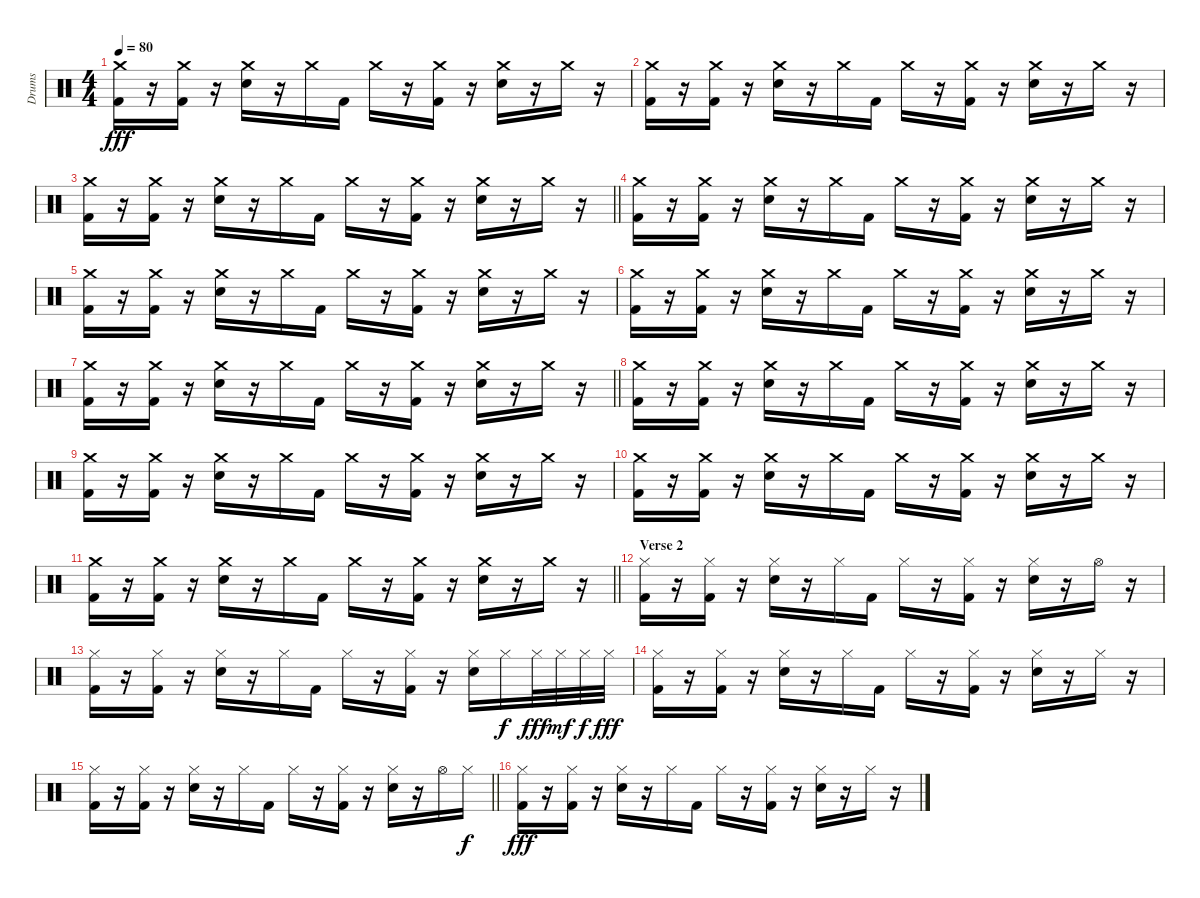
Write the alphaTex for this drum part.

\track ("Drums" "Drums") {instrument percussion}
\staff {score}
\articulation defaults
\ts (4 4)
\tempo 80
\clef neutral
\ks c
("Crash medium (hit)" "Kick (hit) 2").16{dy fff} r.16 ("Crash medium (hit)" "Kick (hit) 2").16 r.16 ("Crash medium (hit)" "Snare (hit) 2").16 r.16 "Crash medium (hit)".16 "Kick (hit) 2".16 "Crash medium (hit)".16 r.16 ("Crash medium (hit)" "Kick (hit) 2").16 r.16 ("Crash medium (hit)" "Snare (hit) 2").16 r.16 "Crash medium (hit)".16 r.16 |
("Crash medium (hit)" "Kick (hit) 2").16 r.16 ("Crash medium (hit)" "Kick (hit) 2").16 r.16 ("Crash medium (hit)" "Snare (hit) 2").16 r.16 "Crash medium (hit)".16 "Kick (hit) 2".16 "Crash medium (hit)".16 r.16 ("Crash medium (hit)" "Kick (hit) 2").16 r.16 ("Crash medium (hit)" "Snare (hit) 2").16 r.16 "Crash medium (hit)".16 r.16 |
\barLineRight lightlight
("Crash medium (hit)" "Kick (hit) 2").16 r.16 ("Crash medium (hit)" "Kick (hit) 2").16 r.16 ("Crash medium (hit)" "Snare (hit) 2").16 r.16 "Crash medium (hit)".16 "Kick (hit) 2".16 "Crash medium (hit)".16 r.16 ("Crash medium (hit)" "Kick (hit) 2").16 r.16 ("Crash medium (hit)" "Snare (hit) 2").16 r.16 "Crash medium (hit)".16 r.16 |
("Crash medium (hit)" "Kick (hit) 2").16 r.16 ("Crash medium (hit)" "Kick (hit) 2").16 r.16 ("Crash medium (hit)" "Snare (hit) 2").16 r.16 "Crash medium (hit)".16 "Kick (hit) 2".16 "Crash medium (hit)".16 r.16 ("Crash medium (hit)" "Kick (hit) 2").16 r.16 ("Crash medium (hit)" "Snare (hit) 2").16 r.16 "Crash medium (hit)".16 r.16 |
("Crash medium (hit)" "Kick (hit) 2").16 r.16 ("Crash medium (hit)" "Kick (hit) 2").16 r.16 ("Crash medium (hit)" "Snare (hit) 2").16 r.16 "Crash medium (hit)".16 "Kick (hit) 2".16 "Crash medium (hit)".16 r.16 ("Crash medium (hit)" "Kick (hit) 2").16 r.16 ("Crash medium (hit)" "Snare (hit) 2").16 r.16 "Crash medium (hit)".16 r.16 |
("Crash medium (hit)" "Kick (hit) 2").16 r.16 ("Crash medium (hit)" "Kick (hit) 2").16 r.16 ("Crash medium (hit)" "Snare (hit) 2").16 r.16 "Crash medium (hit)".16 "Kick (hit) 2".16 "Crash medium (hit)".16 r.16 ("Crash medium (hit)" "Kick (hit) 2").16 r.16 ("Crash medium (hit)" "Snare (hit) 2").16 r.16 "Crash medium (hit)".16 r.16 |
\barLineRight lightlight
("Crash medium (hit)" "Kick (hit) 2").16 r.16 ("Crash medium (hit)" "Kick (hit) 2").16 r.16 ("Crash medium (hit)" "Snare (hit) 2").16 r.16 "Crash medium (hit)".16 "Kick (hit) 2".16 "Crash medium (hit)".16 r.16 ("Crash medium (hit)" "Kick (hit) 2").16 r.16 ("Crash medium (hit)" "Snare (hit) 2").16 r.16 "Crash medium (hit)".16 r.16 |
("Crash medium (hit)" "Kick (hit) 2").16 r.16 ("Crash medium (hit)" "Kick (hit) 2").16 r.16 ("Crash medium (hit)" "Snare (hit) 2").16 r.16 "Crash medium (hit)".16 "Kick (hit) 2".16 "Crash medium (hit)".16 r.16 ("Crash medium (hit)" "Kick (hit) 2").16 r.16 ("Crash medium (hit)" "Snare (hit) 2").16 r.16 "Crash medium (hit)".16 r.16 |
("Crash medium (hit)" "Kick (hit) 2").16 r.16 ("Crash medium (hit)" "Kick (hit) 2").16 r.16 ("Crash medium (hit)" "Snare (hit) 2").16 r.16 "Crash medium (hit)".16 "Kick (hit) 2".16 "Crash medium (hit)".16 r.16 ("Crash medium (hit)" "Kick (hit) 2").16 r.16 ("Crash medium (hit)" "Snare (hit) 2").16 r.16 "Crash medium (hit)".16 r.16 |
("Crash medium (hit)" "Kick (hit) 2").16 r.16 ("Crash medium (hit)" "Kick (hit) 2").16 r.16 ("Crash medium (hit)" "Snare (hit) 2").16 r.16 "Crash medium (hit)".16 "Kick (hit) 2".16 "Crash medium (hit)".16 r.16 ("Crash medium (hit)" "Kick (hit) 2").16 r.16 ("Crash medium (hit)" "Snare (hit) 2").16 r.16 "Crash medium (hit)".16 r.16 |
\barLineRight lightlight
("Crash medium (hit)" "Kick (hit) 2").16 r.16 ("Crash medium (hit)" "Kick (hit) 2").16 r.16 ("Crash medium (hit)" "Snare (hit) 2").16 r.16 "Crash medium (hit)".16 "Kick (hit) 2".16 "Crash medium (hit)".16 r.16 ("Crash medium (hit)" "Kick (hit) 2").16 r.16 ("Crash medium (hit)" "Snare (hit) 2").16 r.16 "Crash medium (hit)".16 r.16 |
\section ("" "Verse 2")
("Hi-Hat (closed)" "Kick (hit) 2").16 r.16 ("Hi-Hat (closed)" "Kick (hit) 2").16 r.16 ("Hi-Hat (closed)" "Snare (hit) 2").16 r.16 "Hi-Hat (closed)".16 "Kick (hit) 2".16 "Hi-Hat (closed)".16 r.16 ("Hi-Hat (closed)" "Kick (hit) 2").16 r.16 ("Hi-Hat (closed)" "Snare (hit) 2").16 r.16 "Hi-Hat (open)".16 r.16 |
("Hi-Hat (closed)" "Kick (hit) 2").16 r.16 ("Hi-Hat (closed)" "Kick (hit) 2").16 r.16 ("Hi-Hat (closed)" "Snare (hit) 2").16 r.16 "Hi-Hat (closed)".16 "Kick (hit) 2".16 "Hi-Hat (closed)".16 r.16 ("Hi-Hat (closed)" "Kick (hit) 2").16 r.16 ("Hi-Hat (closed)" "Snare (hit) 2").16 "Hi-Hat (closed)".16{dy f} "Hi-Hat (closed)".32{dy fff} "Hi-Hat (closed)".32{dy mf} "Hi-Hat (closed)".32{dy f} "Hi-Hat (closed)".32{dy fff} |
("Hi-Hat (closed)" "Kick (hit) 2").16 r.16 ("Hi-Hat (closed)" "Kick (hit) 2").16 r.16 ("Hi-Hat (closed)" "Snare (hit) 2").16 r.16 "Hi-Hat (closed)".16 "Kick (hit) 2".16 "Hi-Hat (closed)".16 r.16 ("Hi-Hat (closed)" "Kick (hit) 2").16 r.16 ("Hi-Hat (closed)" "Snare (hit) 2").16 r.16 "Hi-Hat (closed)".16 r.16 |
\barLineRight lightlight
("Hi-Hat (closed)" "Kick (hit) 2").16 r.16 ("Hi-Hat (closed)" "Kick (hit) 2").16 r.16 ("Hi-Hat (closed)" "Snare (hit) 2").16 r.16 "Hi-Hat (closed)".16 "Kick (hit) 2".16 "Hi-Hat (closed)".16 r.16 ("Hi-Hat (closed)" "Kick (hit) 2").16 r.16 ("Hi-Hat (closed)" "Snare (hit) 2").16 r.16 "Hi-Hat (open)".16 "Hi-Hat (closed)".16{dy f} |
("Hi-Hat (closed)" "Kick (hit) 2").16{dy fff} r.16 ("Hi-Hat (closed)" "Kick (hit) 2").16 r.16 ("Hi-Hat (closed)" "Snare (hit) 2").16 r.16 "Hi-Hat (closed)".16 "Kick (hit) 2".16 "Hi-Hat (closed)".16 r.16 ("Hi-Hat (closed)" "Kick (hit) 2").16 r.16 ("Hi-Hat (closed)" "Snare (hit) 2").16 r.16 "Hi-Hat (closed)".16 r.16
